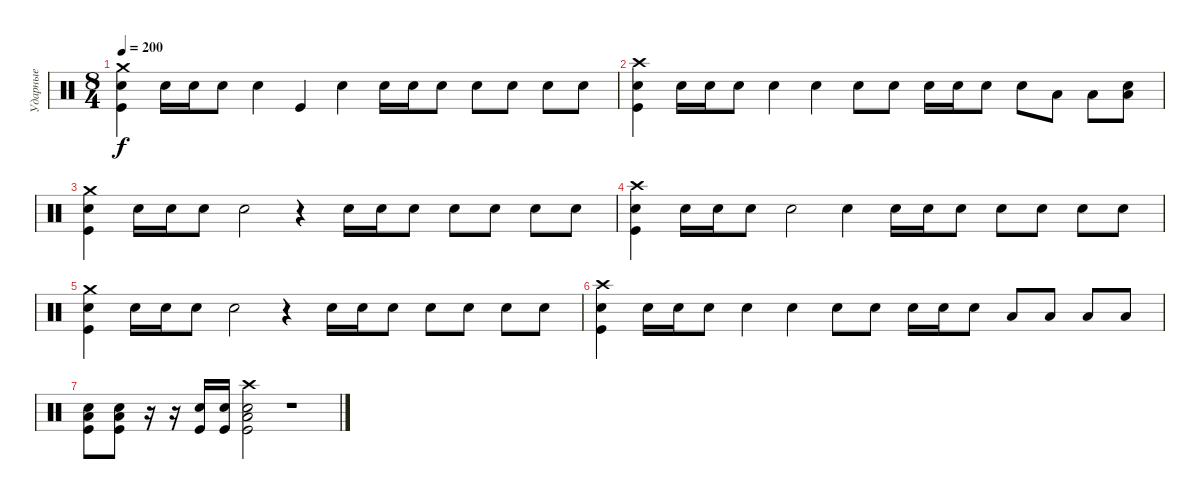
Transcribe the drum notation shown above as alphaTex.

\track ("Ударные" "Ударные") {instrument percussion}
\staff {score}
\articulation defaults
\ts (8 4)
\tempo 200
\clef neutral
\ks c
("Crash medium (hit)" "Electric Snare (hit)" "Kick (hit)").4{dy f} "Electric Snare (hit)".16 "Electric Snare (hit)".16 "Electric Snare (hit)".8 "Electric Snare (hit)".4 "Kick (hit)".4 "Electric Snare (hit)".4 "Electric Snare (hit)".16 "Electric Snare (hit)".16 "Electric Snare (hit)".8 "Electric Snare (hit)".8 "Electric Snare (hit)".8 "Electric Snare (hit)".8 "Electric Snare (hit)".8 |
("Crash high (hit)" "Electric Snare (hit)" "Kick (hit)").4 "Electric Snare (hit)".16 "Electric Snare (hit)".16 "Electric Snare (hit)".8 "Electric Snare (hit)".4 "Electric Snare (hit)".4 "Electric Snare (hit)".8 "Electric Snare (hit)".8 "Electric Snare (hit)".16 "Electric Snare (hit)".16 "Electric Snare (hit)".8 "Electric Snare (hit)".8 "Low Tom (hit)".8 "Low Tom (hit)".8 ("Electric Snare (hit)" "Low Tom (hit)").8 |
("Crash medium (hit)" "Electric Snare (hit)" "Kick (hit)").4 "Electric Snare (hit)".16 "Electric Snare (hit)".16 "Electric Snare (hit)".8 "Electric Snare (hit)".2 r.4 "Electric Snare (hit)".16 "Electric Snare (hit)".16 "Electric Snare (hit)".8 "Electric Snare (hit)".8 "Electric Snare (hit)".8 "Electric Snare (hit)".8 "Electric Snare (hit)".8 |
("Crash high (hit)" "Electric Snare (hit)" "Kick (hit)").4 "Electric Snare (hit)".16 "Electric Snare (hit)".16 "Electric Snare (hit)".8 "Electric Snare (hit)".2 "Electric Snare (hit)".4 "Electric Snare (hit)".16 "Electric Snare (hit)".16 "Electric Snare (hit)".8 "Electric Snare (hit)".8 "Electric Snare (hit)".8 "Electric Snare (hit)".8 "Electric Snare (hit)".8 |
("Crash medium (hit)" "Electric Snare (hit)" "Kick (hit)").4 "Electric Snare (hit)".16 "Electric Snare (hit)".16 "Electric Snare (hit)".8 "Electric Snare (hit)".2 r.4 "Electric Snare (hit)".16 "Electric Snare (hit)".16 "Electric Snare (hit)".8 "Electric Snare (hit)".8 "Electric Snare (hit)".8 "Electric Snare (hit)".8 "Electric Snare (hit)".8 |
("Crash high (hit)" "Electric Snare (hit)" "Kick (hit)").4 "Electric Snare (hit)".16 "Electric Snare (hit)".16 "Electric Snare (hit)".8 "Electric Snare (hit)".4 "Electric Snare (hit)".4 "Electric Snare (hit)".8 "Electric Snare (hit)".8 "Electric Snare (hit)".16 "Electric Snare (hit)".16 "Electric Snare (hit)".8 "Low Tom (hit)".8 "Low Tom (hit)".8 "Low Tom (hit)".8 "Low Tom (hit)".8 |
("Electric Snare (hit)" "Low Tom (hit)" "Kick (hit)").8 ("Electric Snare (hit)" "Low Tom (hit)" "Kick (hit)").8 r.16 r.16 ("Electric Snare (hit)" "Kick (hit)").16 ("Electric Snare (hit)" "Kick (hit)").16 ("Crash high (hit)" "Electric Snare (hit)" "Low Tom (hit)" "Kick (hit)").2 r.1
